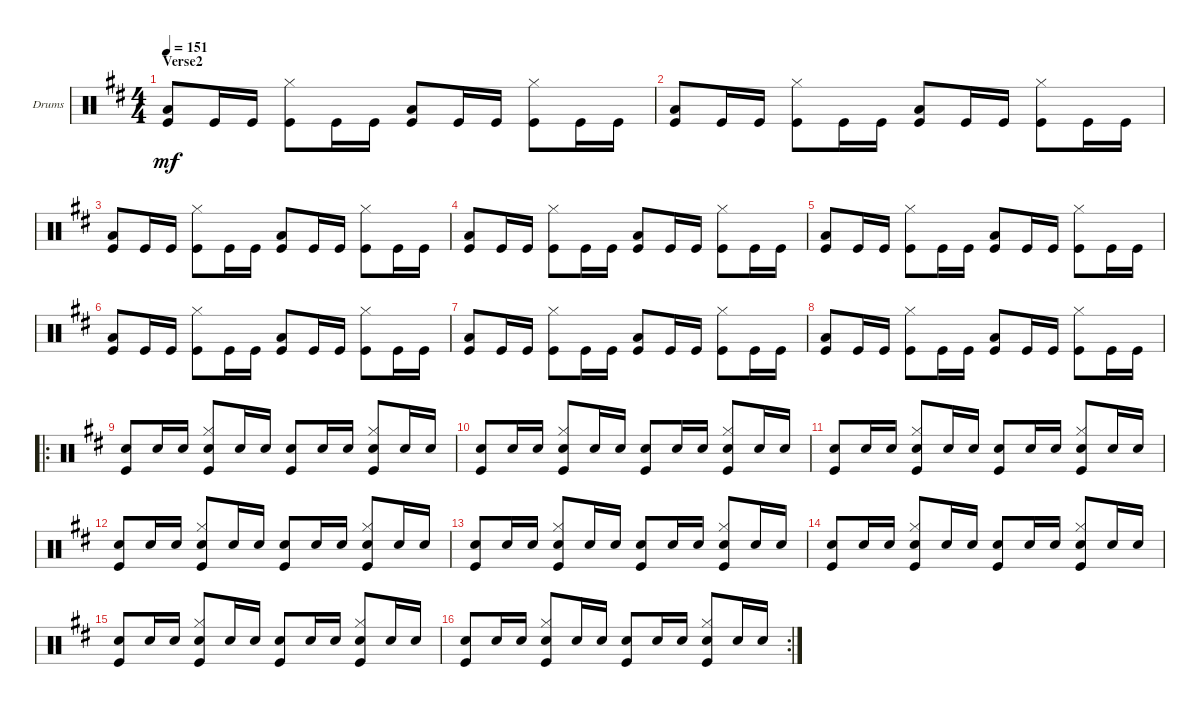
\defaultSystemsLayout 4
\bracketExtendMode groupsimilarinstruments
\firstSystemTrackNameOrientation horizontal
\otherSystemsTrackNameOrientation horizontal
\track ("Drumkit" "Drums") {instrument percussion}
\staff {score}
\articulation defaults
\ts (4 4)
\section ("" "Verse2")
\tempo 151
\clef neutral
\ks d
("Kick (hit)" "Low Tom (hit)").8{dy mf} "Kick (hit)".16 "Kick (hit)".16 ("Kick (hit)" "Hi-Hat (closed)").8 "Kick (hit)".16 "Kick (hit)".16 ("Kick (hit)" "Low Tom (hit)").8 "Kick (hit)".16 "Kick (hit)".16 ("Kick (hit)" "Hi-Hat (closed)").8 "Kick (hit)".16 "Kick (hit)".16 |
("Kick (hit)" "Low Tom (hit)").8 "Kick (hit)".16 "Kick (hit)".16 ("Kick (hit)" "Hi-Hat (closed)").8 "Kick (hit)".16 "Kick (hit)".16 ("Kick (hit)" "Low Tom (hit)").8 "Kick (hit)".16 "Kick (hit)".16 ("Kick (hit)" "Hi-Hat (closed)").8 "Kick (hit)".16 "Kick (hit)".16 |
("Kick (hit)" "Low Tom (hit)").8 "Kick (hit)".16 "Kick (hit)".16 ("Kick (hit)" "Hi-Hat (closed)").8 "Kick (hit)".16 "Kick (hit)".16 ("Kick (hit)" "Low Tom (hit)").8 "Kick (hit)".16 "Kick (hit)".16 ("Kick (hit)" "Hi-Hat (closed)").8 "Kick (hit)".16 "Kick (hit)".16 |
("Kick (hit)" "Low Tom (hit)").8 "Kick (hit)".16 "Kick (hit)".16 ("Kick (hit)" "Hi-Hat (closed)").8 "Kick (hit)".16 "Kick (hit)".16 ("Kick (hit)" "Low Tom (hit)").8 "Kick (hit)".16 "Kick (hit)".16 ("Kick (hit)" "Hi-Hat (closed)").8 "Kick (hit)".16 "Kick (hit)".16 |
("Kick (hit)" "Low Tom (hit)").8 "Kick (hit)".16 "Kick (hit)".16 ("Kick (hit)" "Hi-Hat (closed)").8 "Kick (hit)".16 "Kick (hit)".16 ("Kick (hit)" "Low Tom (hit)").8 "Kick (hit)".16 "Kick (hit)".16 ("Kick (hit)" "Hi-Hat (closed)").8 "Kick (hit)".16 "Kick (hit)".16 |
("Kick (hit)" "Low Tom (hit)").8 "Kick (hit)".16 "Kick (hit)".16 ("Kick (hit)" "Hi-Hat (closed)").8 "Kick (hit)".16 "Kick (hit)".16 ("Kick (hit)" "Low Tom (hit)").8 "Kick (hit)".16 "Kick (hit)".16 ("Kick (hit)" "Hi-Hat (closed)").8 "Kick (hit)".16 "Kick (hit)".16 |
("Kick (hit)" "Low Tom (hit)").8 "Kick (hit)".16 "Kick (hit)".16 ("Kick (hit)" "Hi-Hat (closed)").8 "Kick (hit)".16 "Kick (hit)".16 ("Kick (hit)" "Low Tom (hit)").8 "Kick (hit)".16 "Kick (hit)".16 ("Kick (hit)" "Hi-Hat (closed)").8 "Kick (hit)".16 "Kick (hit)".16 |
("Kick (hit)" "Low Tom (hit)").8 "Kick (hit)".16 "Kick (hit)".16 ("Kick (hit)" "Hi-Hat (closed)").8 "Kick (hit)".16 "Kick (hit)".16 ("Kick (hit)" "Low Tom (hit)").8 "Kick (hit)".16 "Kick (hit)".16 ("Kick (hit)" "Hi-Hat (closed)").8 "Kick (hit)".16 "Kick (hit)".16 |
\ro
("Kick (hit)" "Snare (hit) 2").8 "Snare (hit) 2".16 "Snare (hit) 2".16 ("Kick (hit)" "Hi-Hat (closed)" "Snare (hit) 2").8 "Snare (hit) 2".16 "Snare (hit) 2".16 ("Kick (hit)" "Snare (hit) 2").8 "Snare (hit) 2".16 "Snare (hit) 2".16 ("Kick (hit)" "Hi-Hat (closed)" "Snare (hit) 2").8 "Snare (hit) 2".16 "Snare (hit) 2".16 |
("Kick (hit)" "Snare (hit) 2").8 "Snare (hit) 2".16 "Snare (hit) 2".16 ("Kick (hit)" "Hi-Hat (closed)" "Snare (hit) 2").8 "Snare (hit) 2".16 "Snare (hit) 2".16 ("Kick (hit)" "Snare (hit) 2").8 "Snare (hit) 2".16 "Snare (hit) 2".16 ("Kick (hit)" "Hi-Hat (closed)" "Snare (hit) 2").8 "Snare (hit) 2".16 "Snare (hit) 2".16 |
("Kick (hit)" "Snare (hit) 2").8 "Snare (hit) 2".16 "Snare (hit) 2".16 ("Kick (hit)" "Hi-Hat (closed)" "Snare (hit) 2").8 "Snare (hit) 2".16 "Snare (hit) 2".16 ("Kick (hit)" "Snare (hit) 2").8 "Snare (hit) 2".16 "Snare (hit) 2".16 ("Kick (hit)" "Hi-Hat (closed)" "Snare (hit) 2").8 "Snare (hit) 2".16 "Snare (hit) 2".16 |
("Kick (hit)" "Snare (hit) 2").8 "Snare (hit) 2".16 "Snare (hit) 2".16 ("Kick (hit)" "Hi-Hat (closed)" "Snare (hit) 2").8 "Snare (hit) 2".16 "Snare (hit) 2".16 ("Kick (hit)" "Snare (hit) 2").8 "Snare (hit) 2".16 "Snare (hit) 2".16 ("Kick (hit)" "Hi-Hat (closed)" "Snare (hit) 2").8 "Snare (hit) 2".16 "Snare (hit) 2".16 |
("Kick (hit)" "Snare (hit) 2").8 "Snare (hit) 2".16 "Snare (hit) 2".16 ("Kick (hit)" "Hi-Hat (closed)" "Snare (hit) 2").8 "Snare (hit) 2".16 "Snare (hit) 2".16 ("Kick (hit)" "Snare (hit) 2").8 "Snare (hit) 2".16 "Snare (hit) 2".16 ("Kick (hit)" "Hi-Hat (closed)" "Snare (hit) 2").8 "Snare (hit) 2".16 "Snare (hit) 2".16 |
("Kick (hit)" "Snare (hit) 2").8 "Snare (hit) 2".16 "Snare (hit) 2".16 ("Kick (hit)" "Hi-Hat (closed)" "Snare (hit) 2").8 "Snare (hit) 2".16 "Snare (hit) 2".16 ("Kick (hit)" "Snare (hit) 2").8 "Snare (hit) 2".16 "Snare (hit) 2".16 ("Kick (hit)" "Hi-Hat (closed)" "Snare (hit) 2").8 "Snare (hit) 2".16 "Snare (hit) 2".16 |
("Kick (hit)" "Snare (hit) 2").8 "Snare (hit) 2".16 "Snare (hit) 2".16 ("Kick (hit)" "Hi-Hat (closed)" "Snare (hit) 2").8 "Snare (hit) 2".16 "Snare (hit) 2".16 ("Kick (hit)" "Snare (hit) 2").8 "Snare (hit) 2".16 "Snare (hit) 2".16 ("Kick (hit)" "Hi-Hat (closed)" "Snare (hit) 2").8 "Snare (hit) 2".16 "Snare (hit) 2".16 |
\rc 2
("Kick (hit)" "Snare (hit) 2").8 "Snare (hit) 2".16 "Snare (hit) 2".16 ("Kick (hit)" "Hi-Hat (closed)" "Snare (hit) 2").8 "Snare (hit) 2".16 "Snare (hit) 2".16 ("Kick (hit)" "Snare (hit) 2").8 "Snare (hit) 2".16 "Snare (hit) 2".16 ("Kick (hit)" "Hi-Hat (closed)" "Snare (hit) 2").8 "Snare (hit) 2".16 "Snare (hit) 2".16
